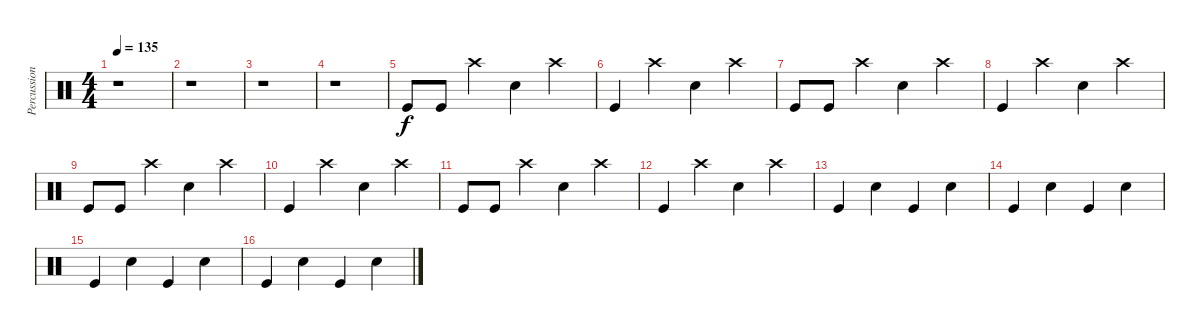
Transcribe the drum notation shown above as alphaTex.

\track ("Percussion" "Percussion") {instrument percussion}
\staff {score}
\articulation defaults
\ts (4 4)
\tempo 135
\clef neutral
\ks c
r.1{dy f} |
r.1 |
r.1 |
r.1 |
"Kick (hit)".8 "Kick (hit)".8 "Crash high (hit)".4 "Snare (hit) 2".4 "Crash high (hit)".4 |
"Kick (hit)".4 "Crash high (hit)".4 "Snare (hit) 2".4 "Crash high (hit)".4 |
"Kick (hit)".8 "Kick (hit)".8 "Crash high (hit)".4 "Snare (hit) 2".4 "Crash high (hit)".4 |
"Kick (hit)".4 "Crash high (hit)".4 "Snare (hit) 2".4 "Crash high (hit)".4 |
"Kick (hit)".8 "Kick (hit)".8 "Crash high (hit)".4 "Snare (hit) 2".4 "Crash high (hit)".4 |
"Kick (hit)".4 "Crash high (hit)".4 "Snare (hit) 2".4 "Crash high (hit)".4 |
"Kick (hit)".8 "Kick (hit)".8 "Crash high (hit)".4 "Snare (hit) 2".4 "Crash high (hit)".4 |
"Kick (hit)".4 "Crash high (hit)".4 "Snare (hit) 2".4 "Crash high (hit)".4 |
"Kick (hit)".4 "Snare (hit) 2".4 "Kick (hit)".4 "Snare (hit) 2".4 |
"Kick (hit)".4 "Snare (hit) 2".4 "Kick (hit)".4 "Snare (hit) 2".4 |
"Kick (hit)".4 "Snare (hit) 2".4 "Kick (hit)".4 "Snare (hit) 2".4 |
"Kick (hit)".4 "Snare (hit) 2".4 "Kick (hit)".4 "Snare (hit) 2".4
